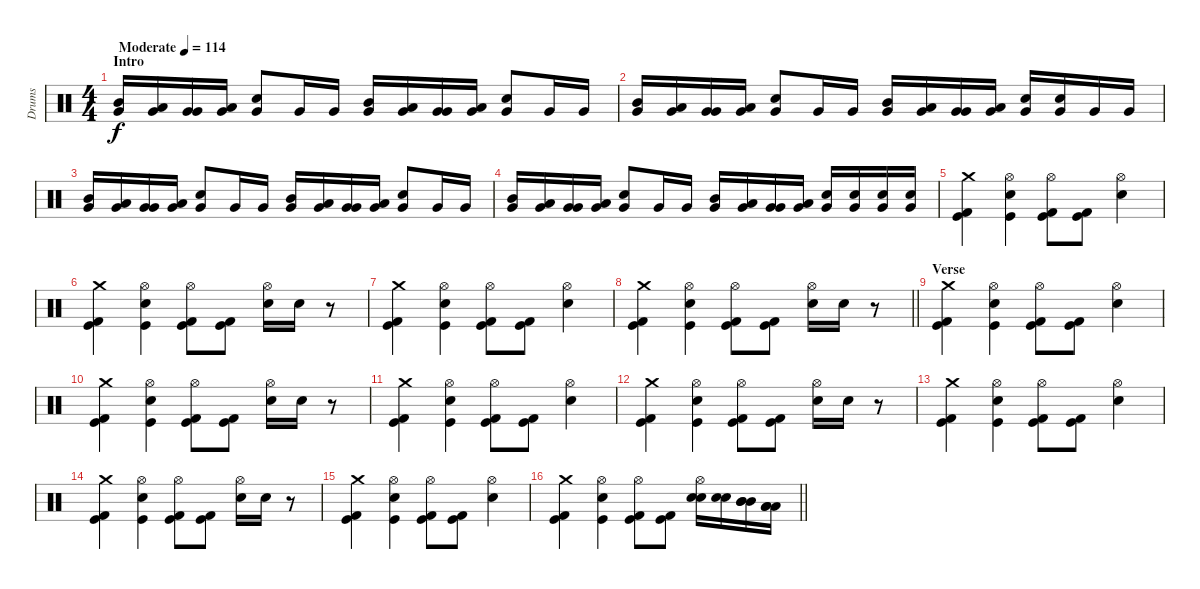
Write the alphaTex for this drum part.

\track ("Drums" "Drums") {instrument percussion}
\staff {score}
\articulation defaults
\ts (4 4)
\section ("" "Intro")
\tempo (114 "Moderate")
\clef neutral
\ks c
("Mid Tom (hit)" "Very Low Tom (hit)").16{dy f} ("Low Tom (hit)" "Very Low Tom (hit)").16 ("Very Low Tom (hit)" "Very Low Tom (hit)").16 ("Low Tom (hit)" "Very Low Tom (hit)").16 ("Snare (hit) 2" "Very Low Tom (hit)").8 "Very Low Tom (hit)".16 "Very Low Tom (hit)".16 ("Mid Tom (hit)" "Very Low Tom (hit)").16 ("Low Tom (hit)" "Very Low Tom (hit)").16 ("Very Low Tom (hit)" "Very Low Tom (hit)").16 ("Low Tom (hit)" "Very Low Tom (hit)").16 ("Snare (hit) 2" "Very Low Tom (hit)").8 "Very Low Tom (hit)".16 "Very Low Tom (hit)".16 |
("Mid Tom (hit)" "Very Low Tom (hit)").16 ("Low Tom (hit)" "Very Low Tom (hit)").16 ("Very Low Tom (hit)" "Very Low Tom (hit)").16 ("Low Tom (hit)" "Very Low Tom (hit)").16 ("Snare (hit) 2" "Very Low Tom (hit)").8 "Very Low Tom (hit)".16 "Very Low Tom (hit)".16 ("Mid Tom (hit)" "Very Low Tom (hit)").16 ("Low Tom (hit)" "Very Low Tom (hit)").16 ("Very Low Tom (hit)" "Very Low Tom (hit)").16 ("Low Tom (hit)" "Very Low Tom (hit)").16 ("Snare (hit) 2" "Very Low Tom (hit)").16 ("Snare (hit) 2" "Very Low Tom (hit)").16 "Very Low Tom (hit)".16 "Very Low Tom (hit)".16 |
("Mid Tom (hit)" "Very Low Tom (hit)").16 ("Low Tom (hit)" "Very Low Tom (hit)").16 ("Very Low Tom (hit)" "Very Low Tom (hit)").16 ("Low Tom (hit)" "Very Low Tom (hit)").16 ("Snare (hit) 2" "Very Low Tom (hit)").8 "Very Low Tom (hit)".16 "Very Low Tom (hit)".16 ("Mid Tom (hit)" "Very Low Tom (hit)").16 ("Low Tom (hit)" "Very Low Tom (hit)").16 ("Very Low Tom (hit)" "Very Low Tom (hit)").16 ("Low Tom (hit)" "Very Low Tom (hit)").16 ("Snare (hit) 2" "Very Low Tom (hit)").8 "Very Low Tom (hit)".16 "Very Low Tom (hit)".16 |
("Mid Tom (hit)" "Very Low Tom (hit)").16 ("Low Tom (hit)" "Very Low Tom (hit)").16 ("Very Low Tom (hit)" "Very Low Tom (hit)").16 ("Low Tom (hit)" "Very Low Tom (hit)").16 ("Snare (hit) 2" "Very Low Tom (hit)").8 "Very Low Tom (hit)".16 "Very Low Tom (hit)".16 ("Mid Tom (hit)" "Very Low Tom (hit)").16 ("Low Tom (hit)" "Very Low Tom (hit)").16 ("Very Low Tom (hit)" "Very Low Tom (hit)").16 ("Low Tom (hit)" "Very Low Tom (hit)").16 ("Snare (hit) 2" "Very Low Tom (hit)").16 ("Snare (hit) 2" "Very Low Tom (hit)").16 ("Snare (hit) 2" "Very Low Tom (hit)").16 ("Snare (hit) 2" "Very Low Tom (hit)").16 |
("Crash medium (hit)" "Kick (hit) 2" "Kick (hit)").4 ("Hi-Hat (open)" "Snare (hit) 2" "Kick (hit)").4 ("Hi-Hat (open)" "Kick (hit) 2" "Kick (hit)").8 ("Kick (hit) 2" "Kick (hit)").8 ("Hi-Hat (open)" "Snare (hit) 2").4 |
("Crash medium (hit)" "Kick (hit) 2" "Kick (hit)").4 ("Hi-Hat (open)" "Snare (hit) 2" "Kick (hit)").4 ("Hi-Hat (open)" "Kick (hit) 2" "Kick (hit)").8 ("Kick (hit) 2" "Kick (hit)").8 ("Hi-Hat (open)" "Snare (hit) 2").16 "Snare (hit) 2".16 r.8 |
("Crash medium (hit)" "Kick (hit) 2" "Kick (hit)").4 ("Hi-Hat (open)" "Snare (hit) 2" "Kick (hit)").4 ("Hi-Hat (open)" "Kick (hit) 2" "Kick (hit)").8 ("Kick (hit) 2" "Kick (hit)").8 ("Hi-Hat (open)" "Snare (hit) 2").4 |
\barLineRight lightlight
("Crash medium (hit)" "Kick (hit) 2" "Kick (hit)").4 ("Hi-Hat (open)" "Snare (hit) 2" "Kick (hit)").4 ("Hi-Hat (open)" "Kick (hit) 2" "Kick (hit)").8 ("Kick (hit) 2" "Kick (hit)").8 ("Hi-Hat (open)" "Snare (hit) 2").16 "Snare (hit) 2".16 r.8 |
\section ("" "Verse")
("Crash medium (hit)" "Kick (hit) 2" "Kick (hit)").4 ("Hi-Hat (open)" "Snare (hit) 2" "Kick (hit)").4 ("Hi-Hat (open)" "Kick (hit) 2" "Kick (hit)").8 ("Kick (hit) 2" "Kick (hit)").8 ("Hi-Hat (open)" "Snare (hit) 2").4 |
("Crash medium (hit)" "Kick (hit) 2" "Kick (hit)").4 ("Hi-Hat (open)" "Snare (hit) 2" "Kick (hit)").4 ("Hi-Hat (open)" "Kick (hit) 2" "Kick (hit)").8 ("Kick (hit) 2" "Kick (hit)").8 ("Hi-Hat (open)" "Snare (hit) 2").16 "Snare (hit) 2".16 r.8 |
("Crash medium (hit)" "Kick (hit) 2" "Kick (hit)").4 ("Hi-Hat (open)" "Snare (hit) 2" "Kick (hit)").4 ("Hi-Hat (open)" "Kick (hit) 2" "Kick (hit)").8 ("Kick (hit) 2" "Kick (hit)").8 ("Hi-Hat (open)" "Snare (hit) 2").4 |
("Crash medium (hit)" "Kick (hit) 2" "Kick (hit)").4 ("Hi-Hat (open)" "Snare (hit) 2" "Kick (hit)").4 ("Hi-Hat (open)" "Kick (hit) 2" "Kick (hit)").8 ("Kick (hit) 2" "Kick (hit)").8 ("Hi-Hat (open)" "Snare (hit) 2").16 "Snare (hit) 2".16 r.8 |
("Crash medium (hit)" "Kick (hit) 2" "Kick (hit)").4 ("Hi-Hat (open)" "Snare (hit) 2" "Kick (hit)").4 ("Hi-Hat (open)" "Kick (hit) 2" "Kick (hit)").8 ("Kick (hit) 2" "Kick (hit)").8 ("Hi-Hat (open)" "Snare (hit) 2").4 |
("Crash medium (hit)" "Kick (hit) 2" "Kick (hit)").4 ("Hi-Hat (open)" "Snare (hit) 2" "Kick (hit)").4 ("Hi-Hat (open)" "Kick (hit) 2" "Kick (hit)").8 ("Kick (hit) 2" "Kick (hit)").8 ("Hi-Hat (open)" "Snare (hit) 2").16 "Snare (hit) 2".16 r.8 |
("Crash medium (hit)" "Kick (hit) 2" "Kick (hit)").4 ("Hi-Hat (open)" "Snare (hit) 2" "Kick (hit)").4 ("Hi-Hat (open)" "Kick (hit) 2" "Kick (hit)").8 ("Kick (hit) 2" "Kick (hit)").8 ("Hi-Hat (open)" "Snare (hit) 2").4 |
\barLineRight lightlight
("Crash medium (hit)" "Kick (hit) 2" "Kick (hit)").4 ("Hi-Hat (open)" "Snare (hit) 2" "Kick (hit)").4 ("Hi-Hat (open)" "Kick (hit) 2" "Kick (hit)").8 ("Kick (hit) 2" "Kick (hit)").8 ("Hi-Hat (open)" "Snare (hit) 2" "Snare (hit) 2").16 ("Snare (hit) 2" "Snare (hit) 2").16 ("Mid Tom (hit)" "Mid Tom (hit)" "Mid Tom (hit)").16 ("Low Tom (hit)" "Low Tom (hit)" "Low Tom (hit)").16
